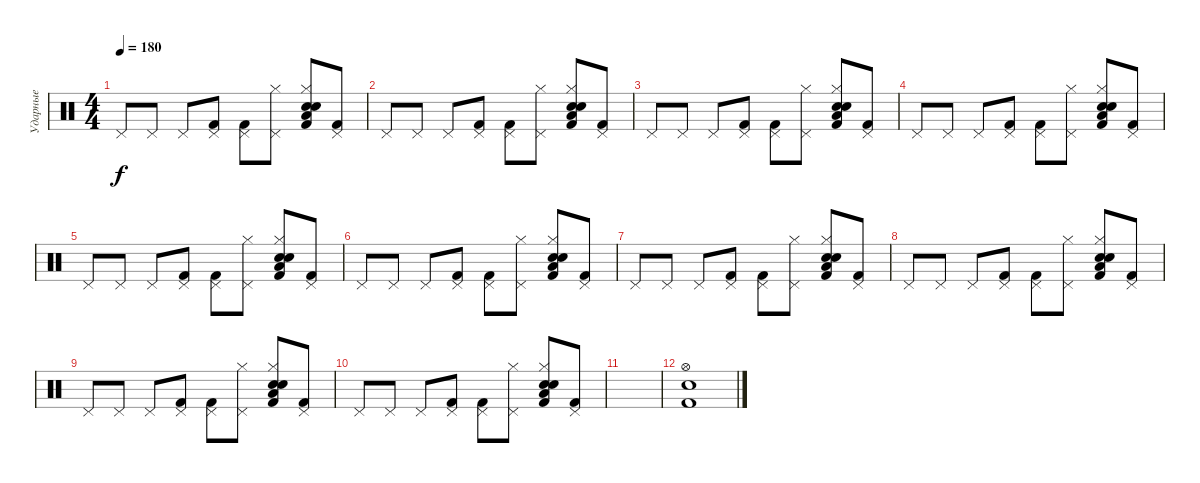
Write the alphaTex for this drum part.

\track ("Ударные" "Ударные") {instrument percussion}
\staff {score}
\articulation defaults
\ts (4 4)
\tempo 180
\clef neutral
\ks c "Pedal Hi-Hat (hit)".8{dy f} "Pedal Hi-Hat (hit)".8 "Pedal Hi-Hat (hit)".8
("Kick (hit) 2" "Pedal Hi-Hat (hit)").8 ("Kick (hit) 2" "Pedal Hi-Hat (hit)").8 ("Hi-Hat (closed)" "Pedal Hi-Hat (hit)").8 ("Hi-Hat (closed)" "Kick (hit) 2" "Snare (hit) 2" "Electric Snare (hit)" "Low Floor Tom (hit)").8 ("Kick (hit) 2" "Pedal Hi-Hat (hit)").8 |
"Pedal Hi-Hat (hit)".8 "Pedal Hi-Hat (hit)".8 "Pedal Hi-Hat (hit)".8 ("Kick (hit) 2" "Pedal Hi-Hat (hit)").8 ("Kick (hit) 2" "Pedal Hi-Hat (hit)").8 ("Hi-Hat (closed)" "Pedal Hi-Hat (hit)").8 ("Hi-Hat (closed)" "Kick (hit) 2" "Snare (hit) 2" "Electric Snare (hit)" "Low Floor Tom (hit)").8 ("Kick (hit) 2" "Pedal Hi-Hat (hit)").8 |
"Pedal Hi-Hat (hit)".8 "Pedal Hi-Hat (hit)".8 "Pedal Hi-Hat (hit)".8 ("Kick (hit) 2" "Pedal Hi-Hat (hit)").8 ("Kick (hit) 2" "Pedal Hi-Hat (hit)").8 ("Hi-Hat (closed)" "Pedal Hi-Hat (hit)").8 ("Hi-Hat (closed)" "Kick (hit) 2" "Snare (hit) 2" "Electric Snare (hit)" "Low Floor Tom (hit)").8 ("Kick (hit) 2" "Pedal Hi-Hat (hit)").8 |
"Pedal Hi-Hat (hit)".8 "Pedal Hi-Hat (hit)".8 "Pedal Hi-Hat (hit)".8 ("Kick (hit) 2" "Pedal Hi-Hat (hit)").8 ("Kick (hit) 2" "Pedal Hi-Hat (hit)").8 ("Hi-Hat (closed)" "Pedal Hi-Hat (hit)").8 ("Hi-Hat (closed)" "Kick (hit) 2" "Snare (hit) 2" "Electric Snare (hit)" "Low Floor Tom (hit)").8 ("Kick (hit) 2" "Pedal Hi-Hat (hit)").8 |
"Pedal Hi-Hat (hit)".8 "Pedal Hi-Hat (hit)".8 "Pedal Hi-Hat (hit)".8 ("Kick (hit) 2" "Pedal Hi-Hat (hit)").8 ("Kick (hit) 2" "Pedal Hi-Hat (hit)").8 ("Hi-Hat (closed)" "Pedal Hi-Hat (hit)").8 ("Hi-Hat (closed)" "Kick (hit) 2" "Snare (hit) 2" "Electric Snare (hit)" "Low Floor Tom (hit)").8 ("Kick (hit) 2" "Pedal Hi-Hat (hit)").8 |
"Pedal Hi-Hat (hit)".8 "Pedal Hi-Hat (hit)".8 "Pedal Hi-Hat (hit)".8 ("Kick (hit) 2" "Pedal Hi-Hat (hit)").8 ("Kick (hit) 2" "Pedal Hi-Hat (hit)").8 ("Hi-Hat (closed)" "Pedal Hi-Hat (hit)").8 ("Hi-Hat (closed)" "Kick (hit) 2" "Snare (hit) 2" "Electric Snare (hit)" "Low Floor Tom (hit)").8 ("Kick (hit) 2" "Pedal Hi-Hat (hit)").8 |
"Pedal Hi-Hat (hit)".8 "Pedal Hi-Hat (hit)".8 "Pedal Hi-Hat (hit)".8 ("Kick (hit) 2" "Pedal Hi-Hat (hit)").8 ("Kick (hit) 2" "Pedal Hi-Hat (hit)").8 ("Hi-Hat (closed)" "Pedal Hi-Hat (hit)").8 ("Hi-Hat (closed)" "Kick (hit) 2" "Snare (hit) 2" "Electric Snare (hit)" "Low Floor Tom (hit)").8 ("Kick (hit) 2" "Pedal Hi-Hat (hit)").8 |
"Pedal Hi-Hat (hit)".8 "Pedal Hi-Hat (hit)".8 "Pedal Hi-Hat (hit)".8 ("Kick (hit) 2" "Pedal Hi-Hat (hit)").8 ("Kick (hit) 2" "Pedal Hi-Hat (hit)").8 ("Hi-Hat (closed)" "Pedal Hi-Hat (hit)").8 ("Hi-Hat (closed)" "Kick (hit) 2" "Snare (hit) 2" "Electric Snare (hit)" "Low Floor Tom (hit)").8 ("Kick (hit) 2" "Pedal Hi-Hat (hit)").8 |
"Pedal Hi-Hat (hit)".8 "Pedal Hi-Hat (hit)".8 "Pedal Hi-Hat (hit)".8 ("Kick (hit) 2" "Pedal Hi-Hat (hit)").8 ("Kick (hit) 2" "Pedal Hi-Hat (hit)").8 ("Hi-Hat (closed)" "Pedal Hi-Hat (hit)").8 ("Hi-Hat (closed)" "Kick (hit) 2" "Snare (hit) 2" "Electric Snare (hit)" "Low Floor Tom (hit)").8 ("Kick (hit) 2" "Pedal Hi-Hat (hit)").8 |
"Pedal Hi-Hat (hit)".8 "Pedal Hi-Hat (hit)".8 "Pedal Hi-Hat (hit)".8 ("Kick (hit) 2" "Pedal Hi-Hat (hit)").8 ("Kick (hit) 2" "Pedal Hi-Hat (hit)").8 ("Hi-Hat (closed)" "Pedal Hi-Hat (hit)").8 ("Hi-Hat (closed)" "Kick (hit) 2" "Snare (hit) 2" "Electric Snare (hit)" "Low Floor Tom (hit)").8 ("Kick (hit) 2" "Pedal Hi-Hat (hit)").8 |
|
("Hi-Hat (open)" "Kick (hit) 2" "Snare (hit) 2").1
